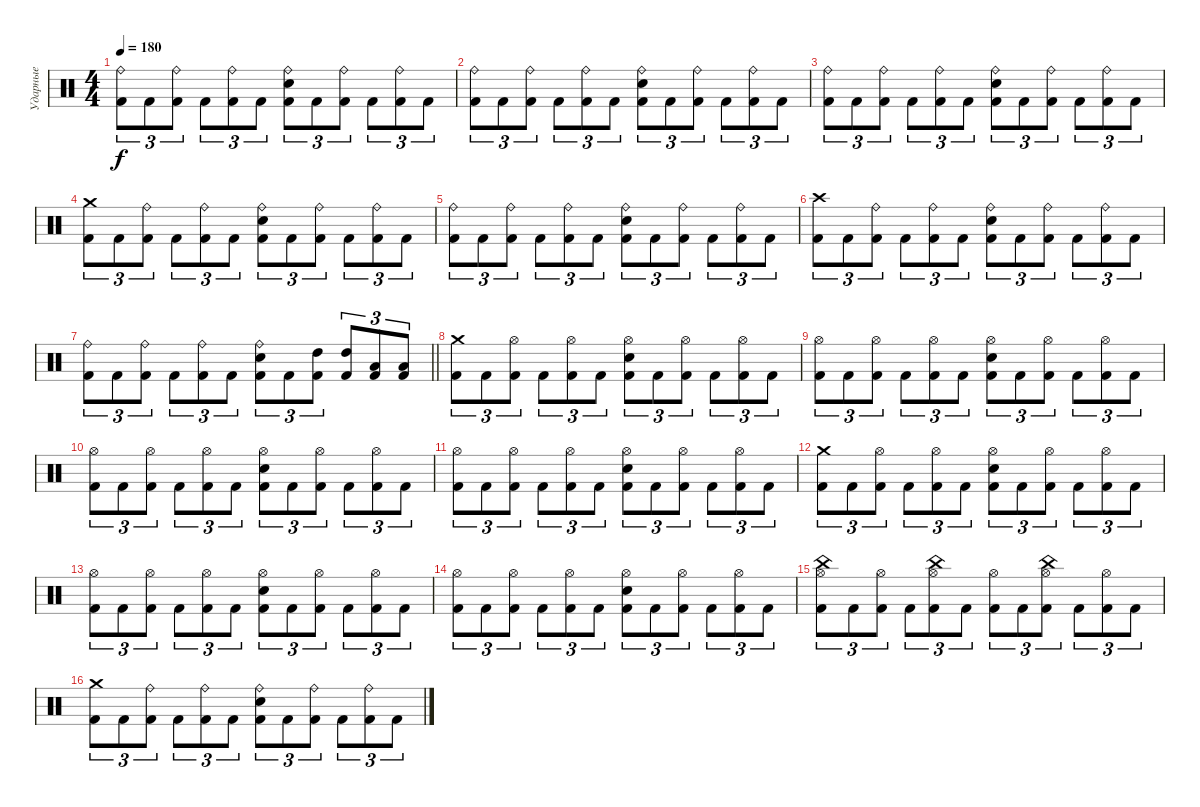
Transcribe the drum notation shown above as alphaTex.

\track ("Ударные" "Ударные") {instrument percussion}
\staff {score}
\articulation defaults
\ts (4 4)
\tempo 180
\clef neutral
\ks c
("Ride (bell)" "Kick (hit) 2").8{tu (3 2) dy f} "Kick (hit) 2".8{tu (3 2)} ("Ride (bell)" "Kick (hit) 2").8{tu (3 2)} "Kick (hit) 2".8{tu (3 2)} ("Ride (bell)" "Kick (hit) 2").8{tu (3 2)} "Kick (hit) 2".8{tu (3 2)} ("Electric Snare (hit)" "Ride (bell)" "Kick (hit) 2").8{tu (3 2)} "Kick (hit) 2".8{tu (3 2)} ("Ride (bell)" "Kick (hit) 2").8{tu (3 2)} "Kick (hit) 2".8{tu (3 2)} ("Ride (bell)" "Kick (hit) 2").8{tu (3 2)} "Kick (hit) 2".8{tu (3 2)} |
("Ride (bell)" "Kick (hit) 2").8{tu (3 2)} "Kick (hit) 2".8{tu (3 2)} ("Ride (bell)" "Kick (hit) 2").8{tu (3 2)} "Kick (hit) 2".8{tu (3 2)} ("Ride (bell)" "Kick (hit) 2").8{tu (3 2)} "Kick (hit) 2".8{tu (3 2)} ("Electric Snare (hit)" "Ride (bell)" "Kick (hit) 2").8{tu (3 2)} "Kick (hit) 2".8{tu (3 2)} ("Ride (bell)" "Kick (hit) 2").8{tu (3 2)} "Kick (hit) 2".8{tu (3 2)} ("Ride (bell)" "Kick (hit) 2").8{tu (3 2)} "Kick (hit) 2".8{tu (3 2)} |
("Ride (bell)" "Kick (hit) 2").8{tu (3 2)} "Kick (hit) 2".8{tu (3 2)} ("Ride (bell)" "Kick (hit) 2").8{tu (3 2)} "Kick (hit) 2".8{tu (3 2)} ("Ride (bell)" "Kick (hit) 2").8{tu (3 2)} "Kick (hit) 2".8{tu (3 2)} ("Electric Snare (hit)" "Ride (bell)" "Kick (hit) 2").8{tu (3 2)} "Kick (hit) 2".8{tu (3 2)} ("Ride (bell)" "Kick (hit) 2").8{tu (3 2)} "Kick (hit) 2".8{tu (3 2)} ("Ride (bell)" "Kick (hit) 2").8{tu (3 2)} "Kick (hit) 2".8{tu (3 2)} |
("Crash medium (hit)" "Kick (hit) 2").8{tu (3 2)} "Kick (hit) 2".8{tu (3 2)} ("Ride (bell)" "Kick (hit) 2").8{tu (3 2)} "Kick (hit) 2".8{tu (3 2)} ("Ride (bell)" "Kick (hit) 2").8{tu (3 2)} "Kick (hit) 2".8{tu (3 2)} ("Electric Snare (hit)" "Ride (bell)" "Kick (hit) 2").8{tu (3 2)} "Kick (hit) 2".8{tu (3 2)} ("Ride (bell)" "Kick (hit) 2").8{tu (3 2)} "Kick (hit) 2".8{tu (3 2)} ("Ride (bell)" "Kick (hit) 2").8{tu (3 2)} "Kick (hit) 2".8{tu (3 2)} |
("Ride (bell)" "Kick (hit) 2").8{tu (3 2)} "Kick (hit) 2".8{tu (3 2)} ("Ride (bell)" "Kick (hit) 2").8{tu (3 2)} "Kick (hit) 2".8{tu (3 2)} ("Ride (bell)" "Kick (hit) 2").8{tu (3 2)} "Kick (hit) 2".8{tu (3 2)} ("Electric Snare (hit)" "Ride (bell)" "Kick (hit) 2").8{tu (3 2)} "Kick (hit) 2".8{tu (3 2)} ("Ride (bell)" "Kick (hit) 2").8{tu (3 2)} "Kick (hit) 2".8{tu (3 2)} ("Ride (bell)" "Kick (hit) 2").8{tu (3 2)} "Kick (hit) 2".8{tu (3 2)} |
("Crash high (hit)" "Kick (hit) 2").8{tu (3 2)} "Kick (hit) 2".8{tu (3 2)} ("Ride (bell)" "Kick (hit) 2").8{tu (3 2)} "Kick (hit) 2".8{tu (3 2)} ("Ride (bell)" "Kick (hit) 2").8{tu (3 2)} "Kick (hit) 2".8{tu (3 2)} ("Electric Snare (hit)" "Ride (bell)" "Kick (hit) 2").8{tu (3 2)} "Kick (hit) 2".8{tu (3 2)} ("Ride (bell)" "Kick (hit) 2").8{tu (3 2)} "Kick (hit) 2".8{tu (3 2)} ("Ride (bell)" "Kick (hit) 2").8{tu (3 2)} "Kick (hit) 2".8{tu (3 2)} |
\barLineRight lightlight
("Ride (bell)" "Kick (hit) 2").8{tu (3 2)} "Kick (hit) 2".8{tu (3 2)} ("Ride (bell)" "Kick (hit) 2").8{tu (3 2)} "Kick (hit) 2".8{tu (3 2)} ("Ride (bell)" "Kick (hit) 2").8{tu (3 2)} "Kick (hit) 2".8{tu (3 2)} ("Electric Snare (hit)" "Ride (bell)" "Kick (hit) 2").8{tu (3 2)} "Kick (hit) 2".8{tu (3 2)} ("High Tom (hit)" "Kick (hit) 2").8{tu (3 2)} ("High Tom (hit)" "Kick (hit) 2").8{tu (3 2)} ("Low Tom (hit)" "Kick (hit) 2").8{tu (3 2)} ("Low Tom (hit)" "Kick (hit) 2").8{tu (3 2)} |
("Crash medium (hit)" "Kick (hit) 2").8{tu (3 2)} "Kick (hit) 2".8{tu (3 2)} ("Hi-Hat (open)" "Kick (hit) 2").8{tu (3 2)} "Kick (hit) 2".8{tu (3 2)} ("Hi-Hat (open)" "Kick (hit) 2").8{tu (3 2)} "Kick (hit) 2".8{tu (3 2)} ("Electric Snare (hit)" "Hi-Hat (open)" "Kick (hit) 2").8{tu (3 2)} "Kick (hit) 2".8{tu (3 2)} ("Hi-Hat (open)" "Kick (hit) 2").8{tu (3 2)} "Kick (hit) 2".8{tu (3 2)} ("Hi-Hat (open)" "Kick (hit) 2").8{tu (3 2)} "Kick (hit) 2".8{tu (3 2)} |
("Hi-Hat (open)" "Kick (hit) 2").8{tu (3 2)} "Kick (hit) 2".8{tu (3 2)} ("Hi-Hat (open)" "Kick (hit) 2").8{tu (3 2)} "Kick (hit) 2".8{tu (3 2)} ("Hi-Hat (open)" "Kick (hit) 2").8{tu (3 2)} "Kick (hit) 2".8{tu (3 2)} ("Electric Snare (hit)" "Hi-Hat (open)" "Kick (hit) 2").8{tu (3 2)} "Kick (hit) 2".8{tu (3 2)} ("Hi-Hat (open)" "Kick (hit) 2").8{tu (3 2)} "Kick (hit) 2".8{tu (3 2)} ("Hi-Hat (open)" "Kick (hit) 2").8{tu (3 2)} "Kick (hit) 2".8{tu (3 2)} |
("Hi-Hat (open)" "Kick (hit) 2").8{tu (3 2)} "Kick (hit) 2".8{tu (3 2)} ("Hi-Hat (open)" "Kick (hit) 2").8{tu (3 2)} "Kick (hit) 2".8{tu (3 2)} ("Hi-Hat (open)" "Kick (hit) 2").8{tu (3 2)} "Kick (hit) 2".8{tu (3 2)} ("Electric Snare (hit)" "Hi-Hat (open)" "Kick (hit) 2").8{tu (3 2)} "Kick (hit) 2".8{tu (3 2)} ("Hi-Hat (open)" "Kick (hit) 2").8{tu (3 2)} "Kick (hit) 2".8{tu (3 2)} ("Hi-Hat (open)" "Kick (hit) 2").8{tu (3 2)} "Kick (hit) 2".8{tu (3 2)} |
("Hi-Hat (open)" "Kick (hit) 2").8{tu (3 2)} "Kick (hit) 2".8{tu (3 2)} ("Hi-Hat (open)" "Kick (hit) 2").8{tu (3 2)} "Kick (hit) 2".8{tu (3 2)} ("Hi-Hat (open)" "Kick (hit) 2").8{tu (3 2)} "Kick (hit) 2".8{tu (3 2)} ("Electric Snare (hit)" "Hi-Hat (open)" "Kick (hit) 2").8{tu (3 2)} "Kick (hit) 2".8{tu (3 2)} ("Hi-Hat (open)" "Kick (hit) 2").8{tu (3 2)} "Kick (hit) 2".8{tu (3 2)} ("Hi-Hat (open)" "Kick (hit) 2").8{tu (3 2)} "Kick (hit) 2".8{tu (3 2)} |
("Crash medium (hit)" "Kick (hit) 2").8{tu (3 2)} "Kick (hit) 2".8{tu (3 2)} ("Hi-Hat (open)" "Kick (hit) 2").8{tu (3 2)} "Kick (hit) 2".8{tu (3 2)} ("Hi-Hat (open)" "Kick (hit) 2").8{tu (3 2)} "Kick (hit) 2".8{tu (3 2)} ("Electric Snare (hit)" "Hi-Hat (open)" "Kick (hit) 2").8{tu (3 2)} "Kick (hit) 2".8{tu (3 2)} ("Hi-Hat (open)" "Kick (hit) 2").8{tu (3 2)} "Kick (hit) 2".8{tu (3 2)} ("Hi-Hat (open)" "Kick (hit) 2").8{tu (3 2)} "Kick (hit) 2".8{tu (3 2)} |
("Hi-Hat (open)" "Kick (hit) 2").8{tu (3 2)} "Kick (hit) 2".8{tu (3 2)} ("Hi-Hat (open)" "Kick (hit) 2").8{tu (3 2)} "Kick (hit) 2".8{tu (3 2)} ("Hi-Hat (open)" "Kick (hit) 2").8{tu (3 2)} "Kick (hit) 2".8{tu (3 2)} ("Electric Snare (hit)" "Hi-Hat (open)" "Kick (hit) 2").8{tu (3 2)} "Kick (hit) 2".8{tu (3 2)} ("Hi-Hat (open)" "Kick (hit) 2").8{tu (3 2)} "Kick (hit) 2".8{tu (3 2)} ("Hi-Hat (open)" "Kick (hit) 2").8{tu (3 2)} "Kick (hit) 2".8{tu (3 2)} |
("Hi-Hat (open)" "Kick (hit) 2").8{tu (3 2)} "Kick (hit) 2".8{tu (3 2)} ("Hi-Hat (open)" "Kick (hit) 2").8{tu (3 2)} "Kick (hit) 2".8{tu (3 2)} ("Hi-Hat (open)" "Kick (hit) 2").8{tu (3 2)} "Kick (hit) 2".8{tu (3 2)} ("Electric Snare (hit)" "Hi-Hat (open)" "Kick (hit) 2").8{tu (3 2)} "Kick (hit) 2".8{tu (3 2)} ("Hi-Hat (open)" "Kick (hit) 2").8{tu (3 2)} "Kick (hit) 2".8{tu (3 2)} ("Hi-Hat (open)" "Kick (hit) 2").8{tu (3 2)} "Kick (hit) 2".8{tu (3 2)} |
("China (hit)" "Hi-Hat (open)" "Kick (hit) 2").8{tu (3 2)} "Kick (hit) 2".8{tu (3 2)} ("Hi-Hat (open)" "Kick (hit) 2").8{tu (3 2)} "Kick (hit) 2".8{tu (3 2)} ("China (hit)" "Hi-Hat (open)" "Kick (hit) 2").8{tu (3 2)} "Kick (hit) 2".8{tu (3 2)} ("Hi-Hat (open)" "Kick (hit) 2").8{tu (3 2)} "Kick (hit) 2".8{tu (3 2)} ("China (hit)" "Hi-Hat (open)" "Kick (hit) 2").8{tu (3 2)} "Kick (hit) 2".8{tu (3 2)} ("Hi-Hat (open)" "Kick (hit) 2").8{tu (3 2)} "Kick (hit) 2".8{tu (3 2)} |
("Crash medium (hit)" "Kick (hit) 2").8{tu (3 2)} "Kick (hit) 2".8{tu (3 2)} ("Ride (bell)" "Kick (hit) 2").8{tu (3 2)} "Kick (hit) 2".8{tu (3 2)} ("Ride (bell)" "Kick (hit) 2").8{tu (3 2)} "Kick (hit) 2".8{tu (3 2)} ("Electric Snare (hit)" "Ride (bell)" "Kick (hit) 2").8{tu (3 2)} "Kick (hit) 2".8{tu (3 2)} ("Ride (bell)" "Kick (hit) 2").8{tu (3 2)} "Kick (hit) 2".8{tu (3 2)} ("Ride (bell)" "Kick (hit) 2").8{tu (3 2)} "Kick (hit) 2".8{tu (3 2)}
